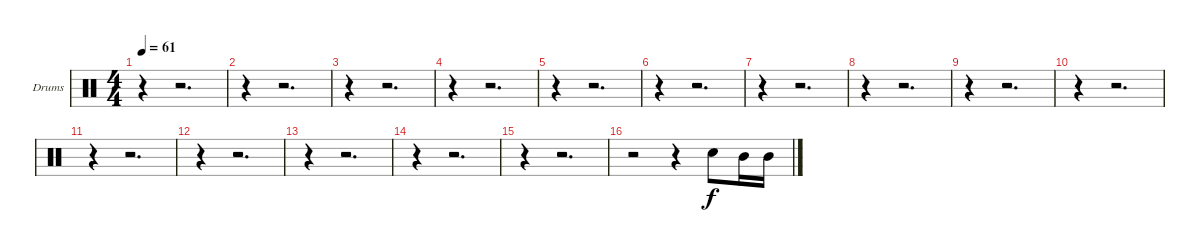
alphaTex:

\bracketExtendMode groupsimilarinstruments
\firstSystemTrackNameOrientation horizontal
\otherSystemsTrackNameOrientation horizontal
\track ("Drumkit" "Drums") {instrument percussion}
\staff {score}
\articulation defaults
\ts (4 4)
\tempo 61
\clef neutral
\ks c
r.4{dy f} r.2{d} |
r.4 r.2{d} |
r.4 r.2{d} |
r.4 r.2{d} |
r.4 r.2{d} |
r.4 r.2{d} |
r.4 r.2{d} |
r.4 r.2{d} |
r.4 r.2{d} |
r.4 r.2{d} |
r.4 r.2{d} |
r.4 r.2{d} |
r.4 r.2{d} |
r.4 r.2{d} |
r.4 r.2{d} |
r.2 r.4 "Snare (hit) 2".8 "Mid Tom (hit)".16 "Mid Tom (hit)".16
